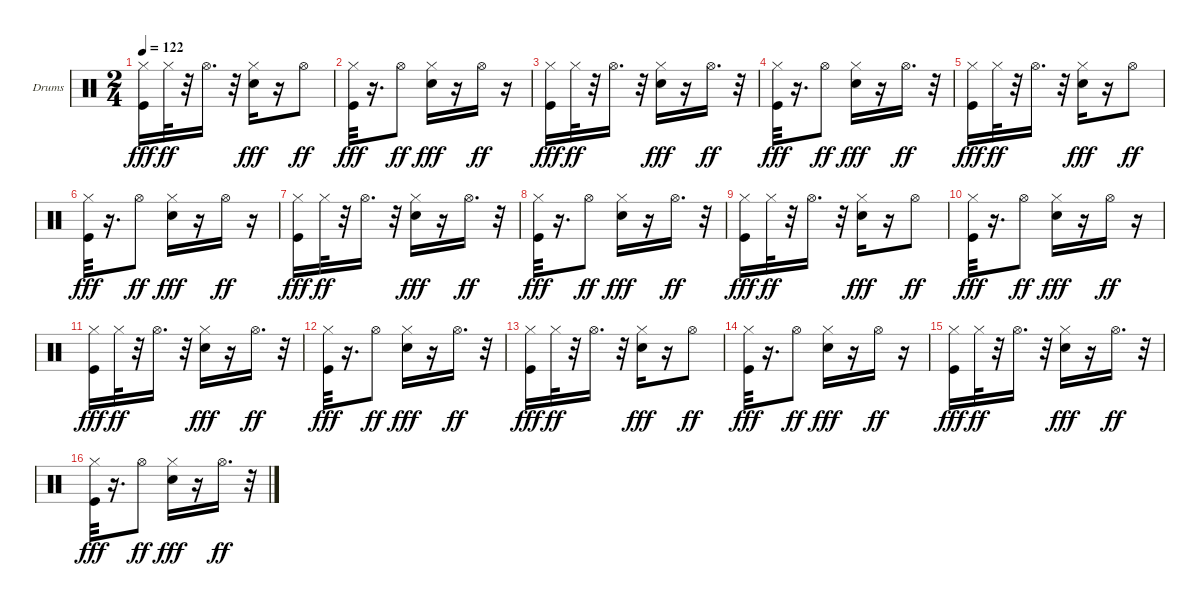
\bracketExtendMode groupsimilarinstruments
\firstSystemTrackNameOrientation horizontal
\otherSystemsTrackNameOrientation horizontal
\track ("Ударные" "Drums") {instrument percussion}
\staff {score}
\articulation defaults
\ts (2 4)
\tempo 122
\clef neutral
\ks c
("Kick (hit)" "Hi-Hat (closed)").16{dy fff} "Hi-Hat (closed)".32{dy ff} r.32 "Hi-Hat (open)".16{d} r.32 ("Snare (hit) 2" "Hi-Hat (closed)").16{dy fff} r.16 "Hi-Hat (open)".8{dy ff} |
("Kick (hit)" "Hi-Hat (closed)").32{dy fff} r.16{d} "Hi-Hat (open)".8{dy ff} ("Snare (hit) 2" "Hi-Hat (closed)").16{dy fff} r.16 "Hi-Hat (open)".16{dy ff} r.16 |
("Kick (hit)" "Hi-Hat (closed)").16{dy fff} "Hi-Hat (closed)".32{dy ff} r.32 "Hi-Hat (open)".16{d} r.32 ("Snare (hit) 2" "Hi-Hat (closed)").16{dy fff} r.16 "Hi-Hat (open)".16{d dy ff} r.32 |
("Kick (hit)" "Hi-Hat (closed)").32{dy fff} r.16{d} "Hi-Hat (open)".8{dy ff} ("Snare (hit) 2" "Hi-Hat (closed)").16{dy fff} r.16 "Hi-Hat (open)".16{d dy ff} r.32 |
("Kick (hit)" "Hi-Hat (closed)").16{dy fff} "Hi-Hat (closed)".32{dy ff} r.32 "Hi-Hat (open)".16{d} r.32 ("Snare (hit) 2" "Hi-Hat (closed)").16{dy fff} r.16 "Hi-Hat (open)".8{dy ff} |
("Kick (hit)" "Hi-Hat (closed)").32{dy fff} r.16{d} "Hi-Hat (open)".8{dy ff} ("Snare (hit) 2" "Hi-Hat (closed)").16{dy fff} r.16 "Hi-Hat (open)".16{dy ff} r.16 |
("Kick (hit)" "Hi-Hat (closed)").16{dy fff} "Hi-Hat (closed)".32{dy ff} r.32 "Hi-Hat (open)".16{d} r.32 ("Snare (hit) 2" "Hi-Hat (closed)").16{dy fff} r.16 "Hi-Hat (open)".16{d dy ff} r.32 |
("Kick (hit)" "Hi-Hat (closed)").32{dy fff} r.16{d} "Hi-Hat (open)".8{dy ff} ("Snare (hit) 2" "Hi-Hat (closed)").16{dy fff} r.16 "Hi-Hat (open)".16{d dy ff} r.32 |
("Kick (hit)" "Hi-Hat (closed)").16{dy fff} "Hi-Hat (closed)".32{dy ff} r.32 "Hi-Hat (open)".16{d} r.32 ("Snare (hit) 2" "Hi-Hat (closed)").16{dy fff} r.16 "Hi-Hat (open)".8{dy ff} |
("Kick (hit)" "Hi-Hat (closed)").32{dy fff} r.16{d} "Hi-Hat (open)".8{dy ff} ("Snare (hit) 2" "Hi-Hat (closed)").16{dy fff} r.16 "Hi-Hat (open)".16{dy ff} r.16 |
("Kick (hit)" "Hi-Hat (closed)").16{dy fff} "Hi-Hat (closed)".32{dy ff} r.32 "Hi-Hat (open)".16{d} r.32 ("Snare (hit) 2" "Hi-Hat (closed)").16{dy fff} r.16 "Hi-Hat (open)".16{d dy ff} r.32 |
("Kick (hit)" "Hi-Hat (closed)").32{dy fff} r.16{d} "Hi-Hat (open)".8{dy ff} ("Snare (hit) 2" "Hi-Hat (closed)").16{dy fff} r.16 "Hi-Hat (open)".16{d dy ff} r.32 |
("Kick (hit)" "Hi-Hat (closed)").16{dy fff} "Hi-Hat (closed)".32{dy ff} r.32 "Hi-Hat (open)".16{d} r.32 ("Snare (hit) 2" "Hi-Hat (closed)").16{dy fff} r.16 "Hi-Hat (open)".8{dy ff} |
("Kick (hit)" "Hi-Hat (closed)").32{dy fff} r.16{d} "Hi-Hat (open)".8{dy ff} ("Snare (hit) 2" "Hi-Hat (closed)").16{dy fff} r.16 "Hi-Hat (open)".16{dy ff} r.16 |
("Kick (hit)" "Hi-Hat (closed)").16{dy fff} "Hi-Hat (closed)".32{dy ff} r.32 "Hi-Hat (open)".16{d} r.32 ("Snare (hit) 2" "Hi-Hat (closed)").16{dy fff} r.16 "Hi-Hat (open)".16{d dy ff} r.32 |
("Kick (hit)" "Hi-Hat (closed)").32{dy fff} r.16{d} "Hi-Hat (open)".8{dy ff} ("Snare (hit) 2" "Hi-Hat (closed)").16{dy fff} r.16 "Hi-Hat (open)".16{d dy ff} r.32
